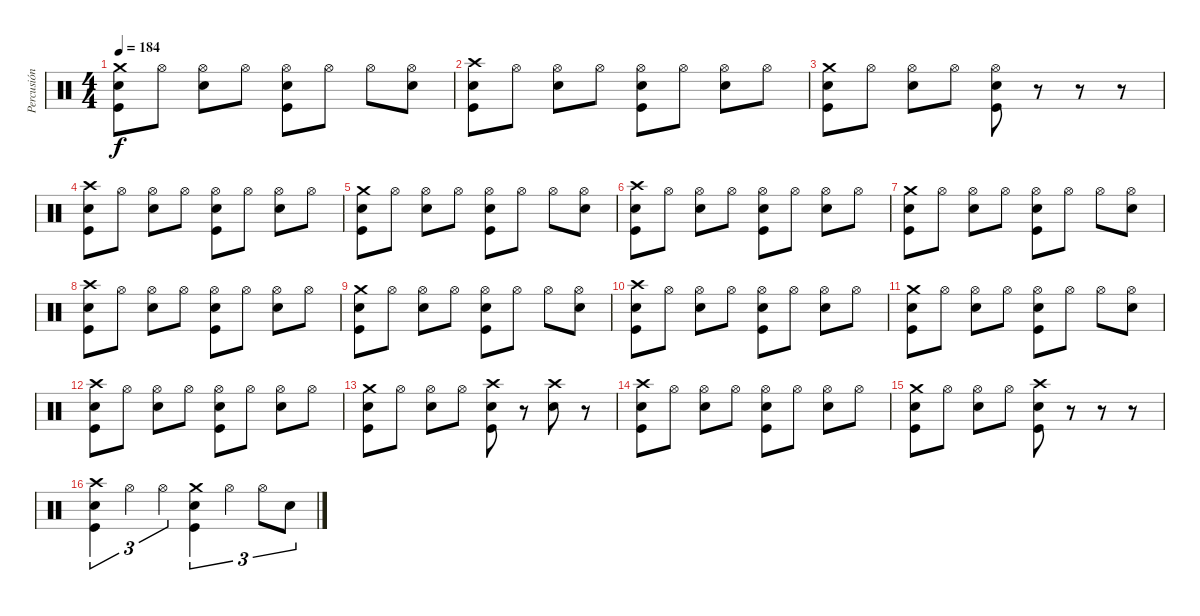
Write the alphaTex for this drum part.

\track ("Percusión" "Percusión") {instrument percussion}
\staff {score}
\articulation defaults
\ts (4 4)
\tempo 184
\clef neutral
\ks c
("Crash medium (hit)" "Electric Snare (hit)" "Kick (hit)").8{dy f} "Hi-Hat (open)".8 ("Hi-Hat (open)" "Electric Snare (hit)").8 "Hi-Hat (open)".8 ("Hi-Hat (open)" "Electric Snare (hit)" "Kick (hit)").8 "Hi-Hat (open)".8 "Hi-Hat (open)".8 ("Hi-Hat (open)" "Electric Snare (hit)").8 |
("Crash high (hit)" "Electric Snare (hit)" "Kick (hit)").8 "Hi-Hat (open)".8 ("Hi-Hat (open)" "Electric Snare (hit)").8 "Hi-Hat (open)".8 ("Hi-Hat (open)" "Electric Snare (hit)" "Kick (hit)").8 "Hi-Hat (open)".8 ("Hi-Hat (open)" "Electric Snare (hit)").8 "Hi-Hat (open)".8 |
("Crash medium (hit)" "Electric Snare (hit)" "Kick (hit)").8 "Hi-Hat (open)".8 ("Hi-Hat (open)" "Electric Snare (hit)").8 "Hi-Hat (open)".8 ("Hi-Hat (open)" "Electric Snare (hit)" "Kick (hit)").8 r.8 r.8 r.8 |
("Crash high (hit)" "Electric Snare (hit)" "Kick (hit)").8 "Hi-Hat (open)".8 ("Hi-Hat (open)" "Electric Snare (hit)").8 "Hi-Hat (open)".8 ("Hi-Hat (open)" "Electric Snare (hit)" "Kick (hit)").8 "Hi-Hat (open)".8 ("Hi-Hat (open)" "Electric Snare (hit)").8 "Hi-Hat (open)".8 |
("Crash medium (hit)" "Electric Snare (hit)" "Kick (hit)").8 "Hi-Hat (open)".8 ("Hi-Hat (open)" "Electric Snare (hit)").8 "Hi-Hat (open)".8 ("Hi-Hat (open)" "Electric Snare (hit)" "Kick (hit)").8 "Hi-Hat (open)".8 "Hi-Hat (open)".8 ("Hi-Hat (open)" "Electric Snare (hit)").8 |
("Crash high (hit)" "Electric Snare (hit)" "Kick (hit)").8 "Hi-Hat (open)".8 ("Hi-Hat (open)" "Electric Snare (hit)").8 "Hi-Hat (open)".8 ("Hi-Hat (open)" "Electric Snare (hit)" "Kick (hit)").8 "Hi-Hat (open)".8 ("Hi-Hat (open)" "Electric Snare (hit)").8 "Hi-Hat (open)".8 |
("Crash medium (hit)" "Electric Snare (hit)" "Kick (hit)").8 "Hi-Hat (open)".8 ("Hi-Hat (open)" "Electric Snare (hit)").8 "Hi-Hat (open)".8 ("Hi-Hat (open)" "Electric Snare (hit)" "Kick (hit)").8 "Hi-Hat (open)".8 "Hi-Hat (open)".8 ("Hi-Hat (open)" "Electric Snare (hit)").8 |
("Crash high (hit)" "Electric Snare (hit)" "Kick (hit)").8 "Hi-Hat (open)".8 ("Hi-Hat (open)" "Electric Snare (hit)").8 "Hi-Hat (open)".8 ("Hi-Hat (open)" "Electric Snare (hit)" "Kick (hit)").8 "Hi-Hat (open)".8 ("Hi-Hat (open)" "Electric Snare (hit)").8 "Hi-Hat (open)".8 |
("Crash medium (hit)" "Electric Snare (hit)" "Kick (hit)").8 "Hi-Hat (open)".8 ("Hi-Hat (open)" "Electric Snare (hit)").8 "Hi-Hat (open)".8 ("Hi-Hat (open)" "Electric Snare (hit)" "Kick (hit)").8 "Hi-Hat (open)".8 "Hi-Hat (open)".8 ("Hi-Hat (open)" "Electric Snare (hit)").8 |
("Crash high (hit)" "Electric Snare (hit)" "Kick (hit)").8 "Hi-Hat (open)".8 ("Hi-Hat (open)" "Electric Snare (hit)").8 "Hi-Hat (open)".8 ("Hi-Hat (open)" "Electric Snare (hit)" "Kick (hit)").8 "Hi-Hat (open)".8 ("Hi-Hat (open)" "Electric Snare (hit)").8 "Hi-Hat (open)".8 |
("Crash medium (hit)" "Electric Snare (hit)" "Kick (hit)").8 "Hi-Hat (open)".8 ("Hi-Hat (open)" "Electric Snare (hit)").8 "Hi-Hat (open)".8 ("Hi-Hat (open)" "Electric Snare (hit)" "Kick (hit)").8 "Hi-Hat (open)".8 "Hi-Hat (open)".8 ("Hi-Hat (open)" "Electric Snare (hit)").8 |
("Crash high (hit)" "Electric Snare (hit)" "Kick (hit)").8 "Hi-Hat (open)".8 ("Hi-Hat (open)" "Electric Snare (hit)").8 "Hi-Hat (open)".8 ("Hi-Hat (open)" "Electric Snare (hit)" "Kick (hit)").8 "Hi-Hat (open)".8 ("Hi-Hat (open)" "Electric Snare (hit)").8 "Hi-Hat (open)".8 |
("Crash medium (hit)" "Electric Snare (hit)" "Kick (hit)").8 "Hi-Hat (open)".8 ("Hi-Hat (open)" "Electric Snare (hit)").8 "Hi-Hat (open)".8 ("Crash high (hit)" "Electric Snare (hit)" "Kick (hit)").8 r.8 ("Crash high (hit)" "Electric Snare (hit)").8 r.8 |
("Crash high (hit)" "Electric Snare (hit)" "Kick (hit)").8 "Hi-Hat (open)".8 ("Hi-Hat (open)" "Electric Snare (hit)").8 "Hi-Hat (open)".8 ("Hi-Hat (open)" "Electric Snare (hit)" "Kick (hit)").8 "Hi-Hat (open)".8 ("Hi-Hat (open)" "Electric Snare (hit)").8 "Hi-Hat (open)".8 |
("Crash medium (hit)" "Electric Snare (hit)" "Kick (hit)").8 "Hi-Hat (open)".8 ("Hi-Hat (open)" "Electric Snare (hit)").8 "Hi-Hat (open)".8 ("Crash high (hit)" "Electric Snare (hit)" "Kick (hit)").8 r.8 r.8 r.8 |
("Crash high (hit)" "Electric Snare (hit)" "Kick (hit)").4{tu (3 2)} "Hi-Hat (open)".4{tu (3 2)} "Hi-Hat (open)".4{tu (3 2)} ("Crash medium (hit)" "Electric Snare (hit)" "Kick (hit)").4{tu (3 2)} "Hi-Hat (open)".4{tu (3 2)} "Hi-Hat (open)".8{tu (3 2)} "Electric Snare (hit)".8{tu (3 2)}
